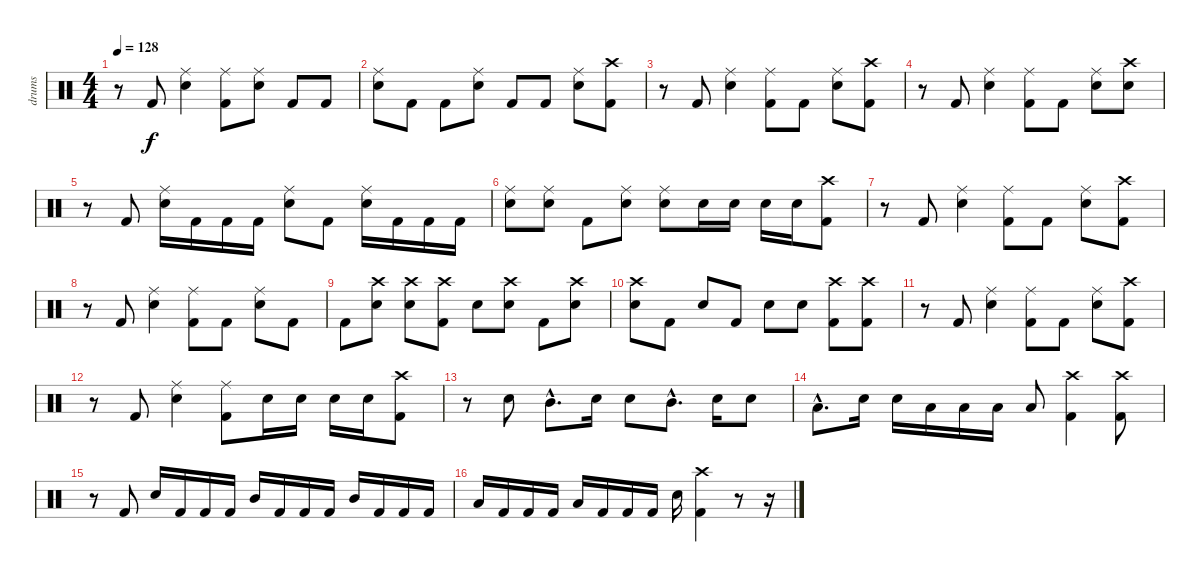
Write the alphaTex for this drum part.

\track ("drums" "drums") {instrument percussion}
\staff {score}
\articulation defaults
\ts (4 4)
\tempo 128
\clef neutral
\ks c
r.8{dy f} "Kick (hit) 2".8 ("Ride (middle)" "Electric Snare (hit)").4 ("Ride (middle)" "Kick (hit) 2").8 ("Ride (middle)" "Electric Snare (hit)").8 "Kick (hit) 2".8 "Kick (hit) 2".8 |
("Ride (middle)" "Electric Snare (hit)").8 "Kick (hit) 2".8 "Kick (hit) 2".8 ("Ride (middle)" "Electric Snare (hit)").8 "Kick (hit) 2".8 "Kick (hit) 2".8 ("Ride (middle)" "Electric Snare (hit)").8 ("Crash high (hit)" "Kick (hit) 2").8 |
r.8 "Kick (hit) 2".8 ("Ride (middle)" "Electric Snare (hit)").4 ("Ride (middle)" "Kick (hit) 2").8 "Kick (hit) 2".8 ("Ride (middle)" "Electric Snare (hit)").8 ("Crash high (hit)" "Kick (hit) 2").8 |
r.8 "Kick (hit) 2".8 ("Ride (middle)" "Electric Snare (hit)").4 ("Ride (middle)" "Kick (hit) 2").8 "Kick (hit) 2".8 ("Ride (middle)" "Electric Snare (hit)").8 ("Crash high (hit)" "Electric Snare (hit)").8 |
r.8 "Kick (hit) 2".8 ("Ride (middle)" "Electric Snare (hit)").16 "Kick (hit) 2".16 "Kick (hit) 2".16 "Kick (hit) 2".16 ("Ride (middle)" "Electric Snare (hit)").8 "Kick (hit) 2".8 ("Ride (middle)" "Electric Snare (hit)").16 "Kick (hit) 2".16 "Kick (hit) 2".16 "Kick (hit) 2".16 |
("Ride (middle)" "Electric Snare (hit)").8 ("Ride (middle)" "Electric Snare (hit)").8 "Kick (hit) 2".8 ("Ride (middle)" "Electric Snare (hit)").8 ("Ride (middle)" "Electric Snare (hit)").8 "Electric Snare (hit)".16 "Electric Snare (hit)".16 "Electric Snare (hit)".16 "Electric Snare (hit)".16 ("Crash high (hit)" "Kick (hit) 2").8 |
r.8 "Kick (hit) 2".8 ("Ride (middle)" "Electric Snare (hit)").4 ("Ride (middle)" "Kick (hit) 2").8 "Kick (hit) 2".8 ("Ride (middle)" "Electric Snare (hit)").8 ("Crash high (hit)" "Kick (hit) 2").8 |
r.8 "Kick (hit) 2".8 ("Ride (middle)" "Electric Snare (hit)").4 ("Ride (middle)" "Kick (hit) 2").8 "Kick (hit) 2".8 ("Ride (middle)" "Electric Snare (hit)").8 "Kick (hit) 2".8 |
"Kick (hit) 2".8 ("Crash high (hit)" "Electric Snare (hit)").8 ("Crash high (hit)" "Electric Snare (hit)").8 ("Crash high (hit)" "Kick (hit) 2").8 "Electric Snare (hit)".8 ("Crash high (hit)" "Electric Snare (hit)").8 "Kick (hit) 2".8 ("Crash high (hit)" "Electric Snare (hit)").8 |
("Crash high (hit)" "Electric Snare (hit)").8 "Kick (hit) 2".8 "Electric Snare (hit)".8 "Kick (hit) 2".8 "Electric Snare (hit)".8 "Electric Snare (hit)".8 ("Crash high (hit)" "Kick (hit) 2").8 ("Crash high (hit)" "Kick (hit) 2").8 |
r.8 "Kick (hit) 2".8 ("Ride (middle)" "Electric Snare (hit)").4 ("Ride (middle)" "Kick (hit) 2").8 "Kick (hit) 2".8 ("Ride (middle)" "Electric Snare (hit)").8 ("Crash high (hit)" "Kick (hit) 2").8 |
r.8 "Kick (hit) 2".8 ("Ride (middle)" "Electric Snare (hit)").4 ("Ride (middle)" "Kick (hit) 2").8 "Electric Snare (hit)".16 "Electric Snare (hit)".16 "Electric Snare (hit)".16 "Electric Snare (hit)".16 ("Crash high (hit)" "Kick (hit) 2").8 |
r.8 "Electric Snare (hit)".8 "Mid Tom (hit)"{hac}.8{d} "Electric Snare (hit)".16 "Electric Snare (hit)".8 "Mid Tom (hit)"{hac}.8{d} "Electric Snare (hit)".16 "Electric Snare (hit)".8 |
"Low Tom (hit)"{hac}.8{d} "Electric Snare (hit)".16 "Electric Snare (hit)".16 "Low Tom (hit)".16 "Low Tom (hit)".16 "Low Floor Tom (hit)".16 "Low Floor Tom (hit)".8 ("Crash high (hit)" "Kick (hit) 2").4 ("Crash high (hit)" "Kick (hit) 2").8 |
r.8 "Kick (hit) 2".8 "Electric Snare (hit)".16 "Kick (hit) 2".16 "Kick (hit) 2".16 "Kick (hit) 2".16 "Mid Tom (hit)".16 "Kick (hit) 2".16 "Kick (hit) 2".16 "Kick (hit) 2".16 "Mid Tom (hit)".16 "Kick (hit) 2".16 "Kick (hit) 2".16 "Kick (hit) 2".16 |
"Low Tom (hit)".16 "Kick (hit) 2".16 "Kick (hit) 2".16 "Kick (hit) 2".16 "Low Floor Tom (hit)".16 "Kick (hit) 2".16 "Kick (hit) 2".16 "Kick (hit) 2".16 "Electric Snare (hit)".16 ("Crash high (hit)" "Kick (hit) 2").4 r.8 r.16
